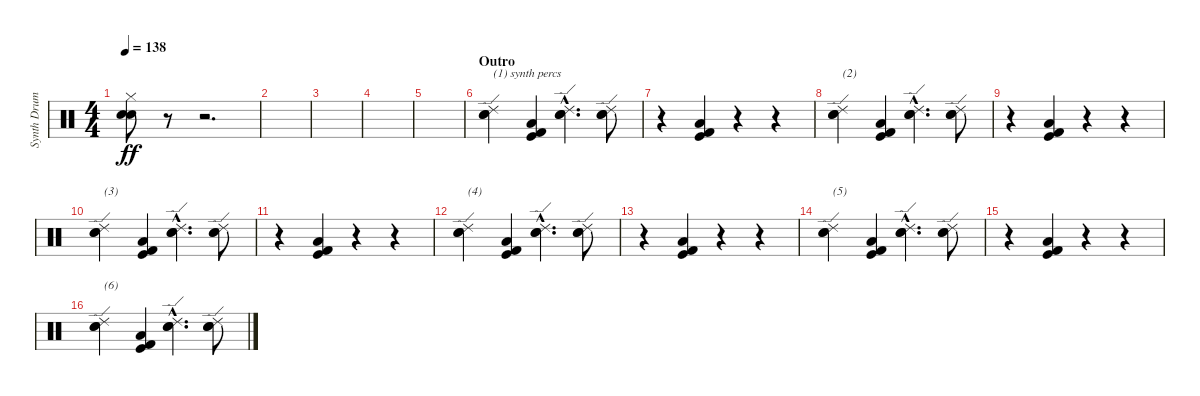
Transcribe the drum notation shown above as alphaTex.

\track ("Synth Drums" "Synth Drum") {instrument percussion}
\staff {score}
\articulation defaults
\ts (4 4)
\tempo 138
\clef neutral
\ks c
("Hi-Hat (closed)" "Electric Snare (hit)" "Snare (hit) 2").8{dy ff} r.8 r.2{d} |
|
|
|
|
\section ("" "Outro")
("Ride (edge) 2" "Electric Snare (hit)" "Snare (hit) 2").4{txt "(1) synth percs"} ("Low Floor Tom (hit)" "Kick (hit) 2" "Kick (hit)").4 ("Ride (edge) 2"{hac} "Electric Snare (hit)"{hac} "Snare (hit) 2"{hac}).4{d} ("Ride (edge) 2" "Electric Snare (hit)" "Snare (hit) 2").8 |
r.4 ("Low Floor Tom (hit)" "Kick (hit) 2" "Kick (hit)").4 r.4 r.4 |
("Ride (edge) 2" "Electric Snare (hit)" "Snare (hit) 2").4{txt "(2)"} ("Low Floor Tom (hit)" "Kick (hit) 2" "Kick (hit)").4 ("Ride (edge) 2"{hac} "Electric Snare (hit)"{hac} "Snare (hit) 2"{hac}).4{d} ("Ride (edge) 2" "Electric Snare (hit)" "Snare (hit) 2").8 |
r.4 ("Low Floor Tom (hit)" "Kick (hit) 2" "Kick (hit)").4 r.4 r.4 |
("Ride (edge) 2" "Electric Snare (hit)" "Snare (hit) 2").4{txt "(3)"} ("Low Floor Tom (hit)" "Kick (hit) 2" "Kick (hit)").4 ("Ride (edge) 2"{hac} "Electric Snare (hit)"{hac} "Snare (hit) 2"{hac}).4{d} ("Ride (edge) 2" "Electric Snare (hit)" "Snare (hit) 2").8 |
r.4 ("Low Floor Tom (hit)" "Kick (hit) 2" "Kick (hit)").4 r.4 r.4 |
("Ride (edge) 2" "Electric Snare (hit)" "Snare (hit) 2").4{txt "(4)"} ("Low Floor Tom (hit)" "Kick (hit) 2" "Kick (hit)").4 ("Ride (edge) 2"{hac} "Electric Snare (hit)"{hac} "Snare (hit) 2"{hac}).4{d} ("Ride (edge) 2" "Electric Snare (hit)" "Snare (hit) 2").8 |
r.4 ("Low Floor Tom (hit)" "Kick (hit) 2" "Kick (hit)").4 r.4 r.4 |
("Ride (edge) 2" "Electric Snare (hit)" "Snare (hit) 2").4{txt "(5)"} ("Low Floor Tom (hit)" "Kick (hit) 2" "Kick (hit)").4 ("Ride (edge) 2"{hac} "Electric Snare (hit)"{hac} "Snare (hit) 2"{hac}).4{d} ("Ride (edge) 2" "Electric Snare (hit)" "Snare (hit) 2").8 |
r.4 ("Low Floor Tom (hit)" "Kick (hit) 2" "Kick (hit)").4 r.4 r.4 |
("Ride (edge) 2" "Electric Snare (hit)" "Snare (hit) 2").4{txt "(6)"} ("Low Floor Tom (hit)" "Kick (hit) 2" "Kick (hit)").4 ("Ride (edge) 2"{hac} "Electric Snare (hit)"{hac} "Snare (hit) 2"{hac}).4{d} ("Ride (edge) 2" "Electric Snare (hit)" "Snare (hit) 2").8
